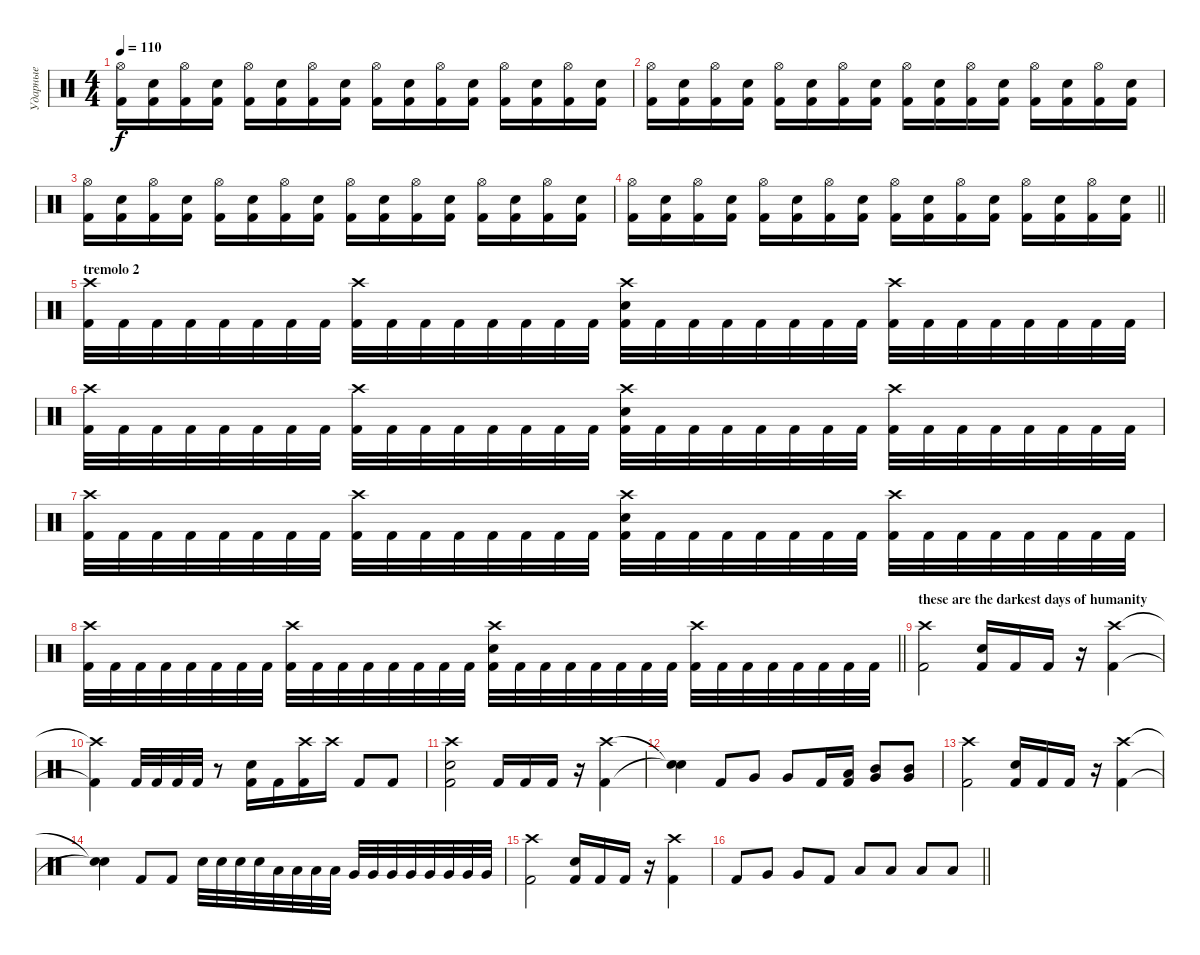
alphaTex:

\track ("Ударные" "Ударные") {instrument percussion}
\staff {score}
\articulation defaults
\ts (4 4)
\tempo 110
\clef neutral
\ks c
("Hi-Hat (open)" "Kick (hit) 2").16{dy f} ("Electric Snare (hit)" "Kick (hit) 2").16 ("Hi-Hat (open)" "Kick (hit) 2").16 ("Electric Snare (hit)" "Kick (hit) 2").16 ("Hi-Hat (open)" "Kick (hit) 2").16 ("Electric Snare (hit)" "Kick (hit) 2").16 ("Hi-Hat (open)" "Kick (hit) 2").16 ("Electric Snare (hit)" "Kick (hit) 2").16 ("Hi-Hat (open)" "Kick (hit) 2").16 ("Electric Snare (hit)" "Kick (hit) 2").16 ("Hi-Hat (open)" "Kick (hit) 2").16 ("Electric Snare (hit)" "Kick (hit) 2").16 ("Hi-Hat (open)" "Kick (hit) 2").16 ("Electric Snare (hit)" "Kick (hit) 2").16 ("Hi-Hat (open)" "Kick (hit) 2").16 ("Electric Snare (hit)" "Kick (hit) 2").16 |
("Hi-Hat (open)" "Kick (hit) 2").16 ("Electric Snare (hit)" "Kick (hit) 2").16 ("Hi-Hat (open)" "Kick (hit) 2").16 ("Electric Snare (hit)" "Kick (hit) 2").16 ("Hi-Hat (open)" "Kick (hit) 2").16 ("Electric Snare (hit)" "Kick (hit) 2").16 ("Hi-Hat (open)" "Kick (hit) 2").16 ("Electric Snare (hit)" "Kick (hit) 2").16 ("Hi-Hat (open)" "Kick (hit) 2").16 ("Electric Snare (hit)" "Kick (hit) 2").16 ("Hi-Hat (open)" "Kick (hit) 2").16 ("Electric Snare (hit)" "Kick (hit) 2").16 ("Hi-Hat (open)" "Kick (hit) 2").16 ("Electric Snare (hit)" "Kick (hit) 2").16 ("Hi-Hat (open)" "Kick (hit) 2").16 ("Electric Snare (hit)" "Kick (hit) 2").16 |
("Hi-Hat (open)" "Kick (hit) 2").16 ("Electric Snare (hit)" "Kick (hit) 2").16 ("Hi-Hat (open)" "Kick (hit) 2").16 ("Electric Snare (hit)" "Kick (hit) 2").16 ("Hi-Hat (open)" "Kick (hit) 2").16 ("Electric Snare (hit)" "Kick (hit) 2").16 ("Hi-Hat (open)" "Kick (hit) 2").16 ("Electric Snare (hit)" "Kick (hit) 2").16 ("Hi-Hat (open)" "Kick (hit) 2").16 ("Electric Snare (hit)" "Kick (hit) 2").16 ("Hi-Hat (open)" "Kick (hit) 2").16 ("Electric Snare (hit)" "Kick (hit) 2").16 ("Hi-Hat (open)" "Kick (hit) 2").16 ("Electric Snare (hit)" "Kick (hit) 2").16 ("Hi-Hat (open)" "Kick (hit) 2").16 ("Electric Snare (hit)" "Kick (hit) 2").16 |
\barLineRight lightlight
("Hi-Hat (open)" "Kick (hit) 2").16 ("Electric Snare (hit)" "Kick (hit) 2").16 ("Hi-Hat (open)" "Kick (hit) 2").16 ("Electric Snare (hit)" "Kick (hit) 2").16 ("Hi-Hat (open)" "Kick (hit) 2").16 ("Electric Snare (hit)" "Kick (hit) 2").16 ("Hi-Hat (open)" "Kick (hit) 2").16 ("Electric Snare (hit)" "Kick (hit) 2").16 ("Hi-Hat (open)" "Kick (hit) 2").16 ("Electric Snare (hit)" "Kick (hit) 2").16 ("Hi-Hat (open)" "Kick (hit) 2").16 ("Electric Snare (hit)" "Kick (hit) 2").16 ("Hi-Hat (open)" "Kick (hit) 2").16 ("Electric Snare (hit)" "Kick (hit) 2").16 ("Hi-Hat (open)" "Kick (hit) 2").16 ("Electric Snare (hit)" "Kick (hit) 2").16 |
\section ("" "tremolo 2")
("Crash high (hit)" "Kick (hit) 2").32 "Kick (hit) 2".32 "Kick (hit) 2".32 "Kick (hit) 2".32 "Kick (hit) 2".32 "Kick (hit) 2".32 "Kick (hit) 2".32 "Kick (hit) 2".32 ("Crash high (hit)" "Kick (hit) 2").32 "Kick (hit) 2".32 "Kick (hit) 2".32 "Kick (hit) 2".32 "Kick (hit) 2".32 "Kick (hit) 2".32 "Kick (hit) 2".32 "Kick (hit) 2".32 ("Crash high (hit)" "Electric Snare (hit)" "Kick (hit) 2").32 "Kick (hit) 2".32 "Kick (hit) 2".32 "Kick (hit) 2".32 "Kick (hit) 2".32 "Kick (hit) 2".32 "Kick (hit) 2".32 "Kick (hit) 2".32 ("Crash high (hit)" "Kick (hit) 2").32 "Kick (hit) 2".32 "Kick (hit) 2".32 "Kick (hit) 2".32 "Kick (hit) 2".32 "Kick (hit) 2".32 "Kick (hit) 2".32 "Kick (hit) 2".32 |
("Crash high (hit)" "Kick (hit) 2").32 "Kick (hit) 2".32 "Kick (hit) 2".32 "Kick (hit) 2".32 "Kick (hit) 2".32 "Kick (hit) 2".32 "Kick (hit) 2".32 "Kick (hit) 2".32 ("Crash high (hit)" "Kick (hit) 2").32 "Kick (hit) 2".32 "Kick (hit) 2".32 "Kick (hit) 2".32 "Kick (hit) 2".32 "Kick (hit) 2".32 "Kick (hit) 2".32 "Kick (hit) 2".32 ("Crash high (hit)" "Electric Snare (hit)" "Kick (hit) 2").32 "Kick (hit) 2".32 "Kick (hit) 2".32 "Kick (hit) 2".32 "Kick (hit) 2".32 "Kick (hit) 2".32 "Kick (hit) 2".32 "Kick (hit) 2".32 ("Crash high (hit)" "Kick (hit) 2").32 "Kick (hit) 2".32 "Kick (hit) 2".32 "Kick (hit) 2".32 "Kick (hit) 2".32 "Kick (hit) 2".32 "Kick (hit) 2".32 "Kick (hit) 2".32 |
("Crash high (hit)" "Kick (hit) 2").32 "Kick (hit) 2".32 "Kick (hit) 2".32 "Kick (hit) 2".32 "Kick (hit) 2".32 "Kick (hit) 2".32 "Kick (hit) 2".32 "Kick (hit) 2".32 ("Crash high (hit)" "Kick (hit) 2").32 "Kick (hit) 2".32 "Kick (hit) 2".32 "Kick (hit) 2".32 "Kick (hit) 2".32 "Kick (hit) 2".32 "Kick (hit) 2".32 "Kick (hit) 2".32 ("Crash high (hit)" "Electric Snare (hit)" "Kick (hit) 2").32 "Kick (hit) 2".32 "Kick (hit) 2".32 "Kick (hit) 2".32 "Kick (hit) 2".32 "Kick (hit) 2".32 "Kick (hit) 2".32 "Kick (hit) 2".32 ("Crash high (hit)" "Kick (hit) 2").32 "Kick (hit) 2".32 "Kick (hit) 2".32 "Kick (hit) 2".32 "Kick (hit) 2".32 "Kick (hit) 2".32 "Kick (hit) 2".32 "Kick (hit) 2".32 |
\barLineRight lightlight
("Crash high (hit)" "Kick (hit) 2").32 "Kick (hit) 2".32 "Kick (hit) 2".32 "Kick (hit) 2".32 "Kick (hit) 2".32 "Kick (hit) 2".32 "Kick (hit) 2".32 "Kick (hit) 2".32 ("Crash high (hit)" "Kick (hit) 2").32 "Kick (hit) 2".32 "Kick (hit) 2".32 "Kick (hit) 2".32 "Kick (hit) 2".32 "Kick (hit) 2".32 "Kick (hit) 2".32 "Kick (hit) 2".32 ("Crash high (hit)" "Electric Snare (hit)" "Kick (hit) 2").32 "Kick (hit) 2".32 "Kick (hit) 2".32 "Kick (hit) 2".32 "Kick (hit) 2".32 "Kick (hit) 2".32 "Kick (hit) 2".32 "Kick (hit) 2".32 ("Crash high (hit)" "Kick (hit) 2").32 "Kick (hit) 2".32 "Kick (hit) 2".32 "Kick (hit) 2".32 "Kick (hit) 2".32 "Kick (hit) 2".32 "Kick (hit) 2".32 "Kick (hit) 2".32 |
\section ("" "these are the darkest days of humanity")
("Crash high (hit)" "Kick (hit) 2").2 ("Electric Snare (hit)" "Kick (hit) 2").16 "Kick (hit) 2".16 "Kick (hit) 2".16 r.16 ("Crash high (hit)" "Kick (hit) 2").4 |
("Crash high (hit)"{t} "Kick (hit) 2"{t}).4 "Kick (hit) 2".32 "Kick (hit) 2".32 "Kick (hit) 2".32 "Kick (hit) 2".32 r.8 ("Electric Snare (hit)" "Kick (hit) 2").16 "Kick (hit) 2".16 ("Crash high (hit)" "Kick (hit) 2").16 "Crash high (hit)".16 "Kick (hit) 2".8 "Kick (hit) 2".8 |
("Crash high (hit)" "Electric Snare (hit)" "Kick (hit) 2").2 "Kick (hit) 2".16 "Kick (hit) 2".16 "Kick (hit) 2".16 r.16 ("Crash high (hit)" "Kick (hit) 2").4 |
("Snare (hit)"{t} "Snare (hit)"{t}).4 "Kick (hit) 2".8 "Very Low Tom (hit)".8 "Very Low Tom (hit)".8 "Kick (hit) 2".16 ("Low Tom (hit)" "Kick (hit) 2").16 ("Mid Tom (hit)" "Very Low Tom (hit)").8 ("Mid Tom (hit)" "Very Low Tom (hit)").8 |
("Crash high (hit)" "Kick (hit) 2").2 ("Electric Snare (hit)" "Kick (hit) 2").16 "Kick (hit) 2".16 "Kick (hit) 2".16 r.16 ("Crash high (hit)" "Kick (hit) 2").4 |
("Snare (hit)"{t} "Snare (hit)"{t}).4 "Kick (hit) 2".8 "Kick (hit) 2".8 "Electric Snare (hit)".32 "Electric Snare (hit)".32 "Electric Snare (hit)".32 "Electric Snare (hit)".32 "Low Tom (hit)".32 "Low Tom (hit)".32 "Low Tom (hit)".32 "Low Tom (hit)".32 "Very Low Tom (hit)".32 "Very Low Tom (hit)".32 "Very Low Tom (hit)".32 "Very Low Tom (hit)".32 "Very Low Tom (hit)".32 "Very Low Tom (hit)".32 "Very Low Tom (hit)".32 "Very Low Tom (hit)".32 |
("Crash high (hit)" "Kick (hit) 2").2 ("Electric Snare (hit)" "Kick (hit) 2").16 "Kick (hit) 2".16 "Kick (hit) 2".16 r.16 ("Crash high (hit)" "Kick (hit) 2").4 |
\barLineRight lightlight "Kick (hit) 2".8 "Very Low Tom (hit)".8 "Very Low Tom (hit)".8 "Kick (hit) 2".8 "Low Tom (hit)".8 "Low Tom (hit)".8 "Low Tom (hit)".8 "Low Tom (hit)".8
